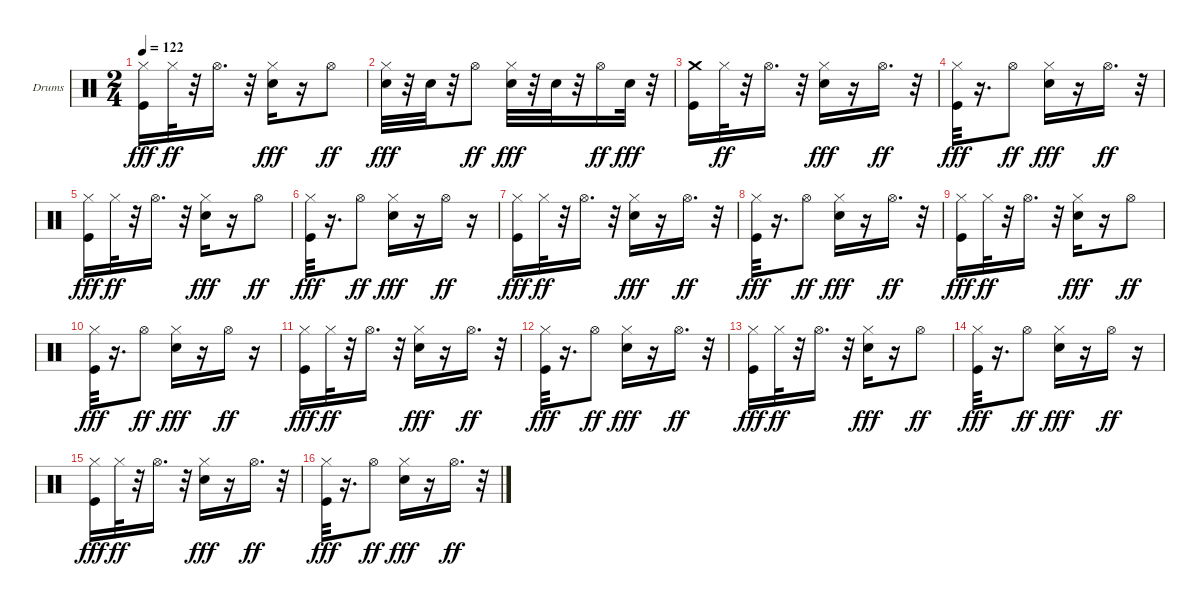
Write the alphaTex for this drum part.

\bracketExtendMode groupsimilarinstruments
\firstSystemTrackNameOrientation horizontal
\otherSystemsTrackNameOrientation horizontal
\track ("Ударные" "Drums") {instrument percussion}
\staff {score}
\articulation defaults
\ts (2 4)
\tempo 122
\clef neutral
\ks c
("Kick (hit)" "Hi-Hat (closed)").16{dy fff} "Hi-Hat (closed)".32{dy ff} r.32 "Hi-Hat (open)".16{d} r.32 ("Snare (hit) 2" "Hi-Hat (closed)").16{dy fff} r.16 "Hi-Hat (open)".8{dy ff} |
("Snare (hit) 2" "Hi-Hat (closed)").32{dy fff} r.32 "Snare (hit) 2".32 r.32 "Hi-Hat (open)".8{dy ff} ("Snare (hit) 2" "Hi-Hat (closed)").32{dy fff} r.32 "Snare (hit) 2".32 r.32 "Hi-Hat (open)".16{dy ff} "Snare (hit) 2".32{dy fff} r.32 |
("Kick (hit)" "Crash medium (hit)").16 "Hi-Hat (closed)".32{dy ff} r.32 "Hi-Hat (open)".16{d} r.32 ("Snare (hit) 2" "Hi-Hat (closed)").16{dy fff} r.16 "Hi-Hat (open)".16{d dy ff} r.32 |
("Kick (hit)" "Hi-Hat (closed)").32{dy fff} r.16{d} "Hi-Hat (open)".8{dy ff} ("Snare (hit) 2" "Hi-Hat (closed)").16{dy fff} r.16 "Hi-Hat (open)".16{d dy ff} r.32 |
("Kick (hit)" "Hi-Hat (closed)").16{dy fff} "Hi-Hat (closed)".32{dy ff} r.32 "Hi-Hat (open)".16{d} r.32 ("Snare (hit) 2" "Hi-Hat (closed)").16{dy fff} r.16 "Hi-Hat (open)".8{dy ff} |
("Kick (hit)" "Hi-Hat (closed)").32{dy fff} r.16{d} "Hi-Hat (open)".8{dy ff} ("Snare (hit) 2" "Hi-Hat (closed)").16{dy fff} r.16 "Hi-Hat (open)".16{dy ff} r.16 |
("Kick (hit)" "Hi-Hat (closed)").16{dy fff} "Hi-Hat (closed)".32{dy ff} r.32 "Hi-Hat (open)".16{d} r.32 ("Snare (hit) 2" "Hi-Hat (closed)").16{dy fff} r.16 "Hi-Hat (open)".16{d dy ff} r.32 |
("Kick (hit)" "Hi-Hat (closed)").32{dy fff} r.16{d} "Hi-Hat (open)".8{dy ff} ("Snare (hit) 2" "Hi-Hat (closed)").16{dy fff} r.16 "Hi-Hat (open)".16{d dy ff} r.32 |
("Kick (hit)" "Hi-Hat (closed)").16{dy fff} "Hi-Hat (closed)".32{dy ff} r.32 "Hi-Hat (open)".16{d} r.32 ("Snare (hit) 2" "Hi-Hat (closed)").16{dy fff} r.16 "Hi-Hat (open)".8{dy ff} |
("Kick (hit)" "Hi-Hat (closed)").32{dy fff} r.16{d} "Hi-Hat (open)".8{dy ff} ("Snare (hit) 2" "Hi-Hat (closed)").16{dy fff} r.16 "Hi-Hat (open)".16{dy ff} r.16 |
("Kick (hit)" "Hi-Hat (closed)").16{dy fff} "Hi-Hat (closed)".32{dy ff} r.32 "Hi-Hat (open)".16{d} r.32 ("Snare (hit) 2" "Hi-Hat (closed)").16{dy fff} r.16 "Hi-Hat (open)".16{d dy ff} r.32 |
("Kick (hit)" "Hi-Hat (closed)").32{dy fff} r.16{d} "Hi-Hat (open)".8{dy ff} ("Snare (hit) 2" "Hi-Hat (closed)").16{dy fff} r.16 "Hi-Hat (open)".16{d dy ff} r.32 |
("Kick (hit)" "Hi-Hat (closed)").16{dy fff} "Hi-Hat (closed)".32{dy ff} r.32 "Hi-Hat (open)".16{d} r.32 ("Snare (hit) 2" "Hi-Hat (closed)").16{dy fff} r.16 "Hi-Hat (open)".8{dy ff} |
("Kick (hit)" "Hi-Hat (closed)").32{dy fff} r.16{d} "Hi-Hat (open)".8{dy ff} ("Snare (hit) 2" "Hi-Hat (closed)").16{dy fff} r.16 "Hi-Hat (open)".16{dy ff} r.16 |
("Kick (hit)" "Hi-Hat (closed)").16{dy fff} "Hi-Hat (closed)".32{dy ff} r.32 "Hi-Hat (open)".16{d} r.32 ("Snare (hit) 2" "Hi-Hat (closed)").16{dy fff} r.16 "Hi-Hat (open)".16{d dy ff} r.32 |
("Kick (hit)" "Hi-Hat (closed)").32{dy fff} r.16{d} "Hi-Hat (open)".8{dy ff} ("Snare (hit) 2" "Hi-Hat (closed)").16{dy fff} r.16 "Hi-Hat (open)".16{d dy ff} r.32
